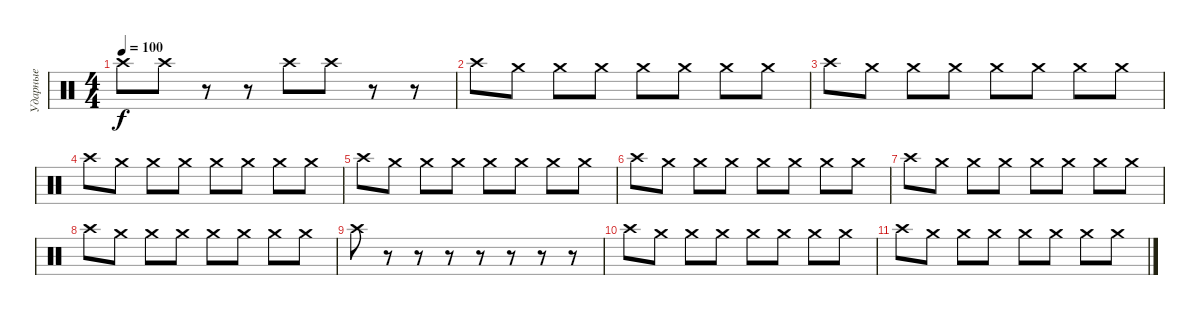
\track ("Ударные" "Ударные") {instrument percussion}
\staff {score}
\articulation defaults
\ts (4 4)
\tempo 100
\clef neutral
\ks c "Crash high (hit)".8{dy f} "Crash high (hit)".8
r.8 r.8 "Crash high (hit)".8 "Crash high (hit)".8 r.8 r.8 |
"Crash high (hit)".8 "Crash medium (hit)".8 "Crash medium (hit)".8 "Crash medium (hit)".8 "Crash medium (hit)".8 "Crash medium (hit)".8 "Crash medium (hit)".8 "Crash medium (hit)".8 |
"Crash high (hit)".8 "Crash medium (hit)".8 "Crash medium (hit)".8 "Crash medium (hit)".8 "Crash medium (hit)".8 "Crash medium (hit)".8 "Crash medium (hit)".8 "Crash medium (hit)".8 |
"Crash high (hit)".8 "Crash medium (hit)".8 "Crash medium (hit)".8 "Crash medium (hit)".8 "Crash medium (hit)".8 "Crash medium (hit)".8 "Crash medium (hit)".8 "Crash medium (hit)".8 |
"Crash high (hit)".8 "Crash medium (hit)".8 "Crash medium (hit)".8 "Crash medium (hit)".8 "Crash medium (hit)".8 "Crash medium (hit)".8 "Crash medium (hit)".8 "Crash medium (hit)".8 |
"Crash high (hit)".8 "Crash medium (hit)".8 "Crash medium (hit)".8 "Crash medium (hit)".8 "Crash medium (hit)".8 "Crash medium (hit)".8 "Crash medium (hit)".8 "Crash medium (hit)".8 |
"Crash high (hit)".8 "Crash medium (hit)".8 "Crash medium (hit)".8 "Crash medium (hit)".8 "Crash medium (hit)".8 "Crash medium (hit)".8 "Crash medium (hit)".8 "Crash medium (hit)".8 |
"Crash high (hit)".8 "Crash medium (hit)".8 "Crash medium (hit)".8 "Crash medium (hit)".8 "Crash medium (hit)".8 "Crash medium (hit)".8 "Crash medium (hit)".8 "Crash medium (hit)".8 |
"Crash high (hit)".8 r.8 r.8 r.8 r.8 r.8 r.8 r.8 |
"Crash high (hit)".8 "Crash medium (hit)".8 "Crash medium (hit)".8 "Crash medium (hit)".8 "Crash medium (hit)".8 "Crash medium (hit)".8 "Crash medium (hit)".8 "Crash medium (hit)".8 |
"Crash high (hit)".8 "Crash medium (hit)".8 "Crash medium (hit)".8 "Crash medium (hit)".8 "Crash medium (hit)".8 "Crash medium (hit)".8 "Crash medium (hit)".8 "Crash medium (hit)".8
